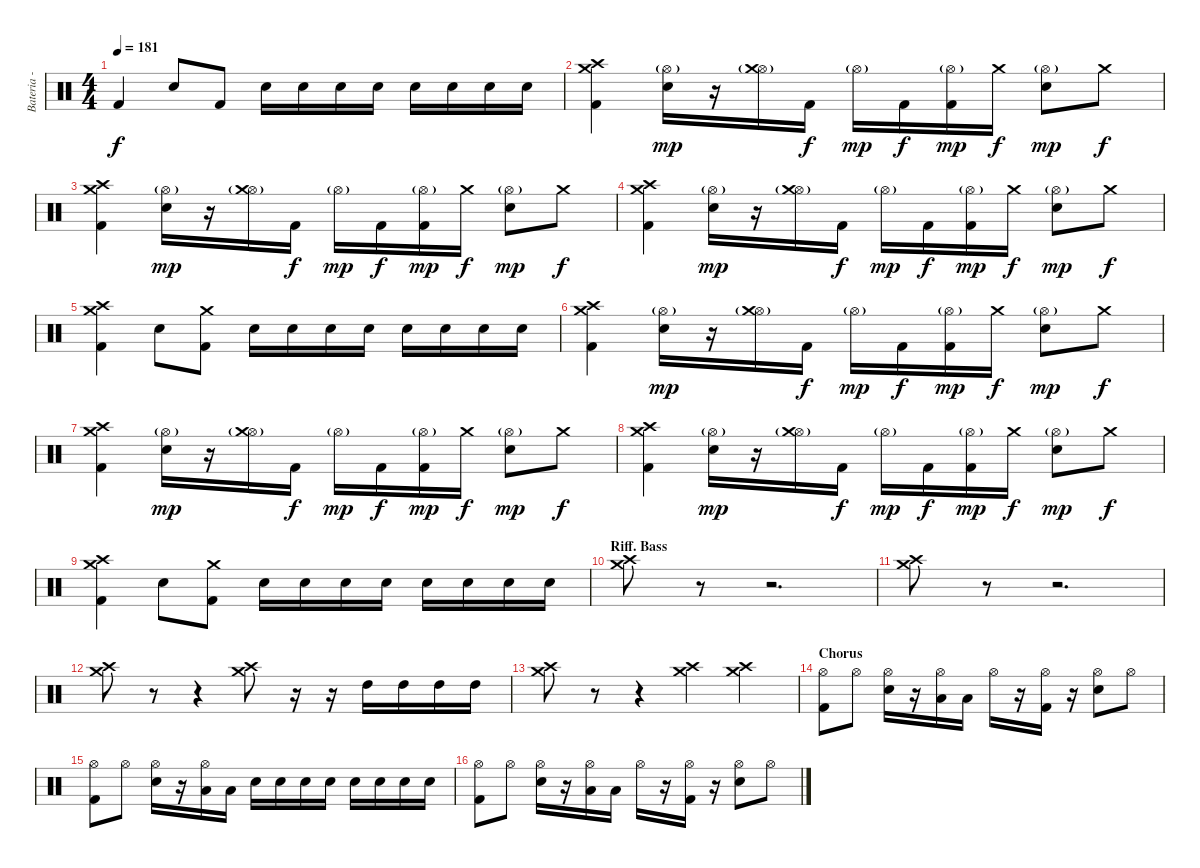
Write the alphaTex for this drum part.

\track ("Bateria - Larzon" "Bateria - ") {instrument percussion}
\staff {score}
\articulation defaults
\ts (4 4)
\tempo 181
\clef neutral
\ks c "Kick (hit) 2".4{dy f} "Electric Snare (hit)".8 "Kick (hit) 2".8 "Electric Snare (hit)".16 "Electric Snare (hit)".16 "Electric Snare (hit)".16 "Electric Snare (hit)".16 "Electric Snare (hit)".16 "Electric Snare (hit)".16 "Electric Snare (hit)".16 "Electric Snare (hit)".16
|
("Kick (hit) 2" "Crash high (hit)" "Crash medium (hit)").4 ("Electric Snare (hit)" "Hi-Hat (open)"{g}).16{dy mp} r.16 ("Hi-Hat (open)"{g} "Crash medium (hit)").16 "Kick (hit) 2".16{dy f} "Hi-Hat (open)"{g}.16{dy mp} "Kick (hit) 2".16{dy f} ("Kick (hit) 2" "Hi-Hat (open)"{g}).16{dy mp} "Crash medium (hit)".16{dy f} ("Electric Snare (hit)" "Hi-Hat (open)"{g}).8{dy mp} "Crash medium (hit)".8{dy f} |
("Kick (hit) 2" "Crash high (hit)" "Crash medium (hit)").4 ("Electric Snare (hit)" "Hi-Hat (open)"{g}).16{dy mp} r.16 ("Hi-Hat (open)"{g} "Crash medium (hit)").16 "Kick (hit) 2".16{dy f} "Hi-Hat (open)"{g}.16{dy mp} "Kick (hit) 2".16{dy f} ("Kick (hit) 2" "Hi-Hat (open)"{g}).16{dy mp} "Crash medium (hit)".16{dy f} ("Electric Snare (hit)" "Hi-Hat (open)"{g}).8{dy mp} "Crash medium (hit)".8{dy f} |
("Kick (hit) 2" "Crash high (hit)" "Crash medium (hit)").4 ("Electric Snare (hit)" "Hi-Hat (open)"{g}).16{dy mp} r.16 ("Hi-Hat (open)"{g} "Crash medium (hit)").16 "Kick (hit) 2".16{dy f} "Hi-Hat (open)"{g}.16{dy mp} "Kick (hit) 2".16{dy f} ("Kick (hit) 2" "Hi-Hat (open)"{g}).16{dy mp} "Crash medium (hit)".16{dy f} ("Electric Snare (hit)" "Hi-Hat (open)"{g}).8{dy mp} "Crash medium (hit)".8{dy f} |
("Kick (hit) 2" "Crash high (hit)" "Crash medium (hit)").4 "Electric Snare (hit)".8 ("Kick (hit) 2" "Crash medium (hit)").8 "Electric Snare (hit)".16 "Electric Snare (hit)".16 "Electric Snare (hit)".16 "Electric Snare (hit)".16 "Electric Snare (hit)".16 "Electric Snare (hit)".16 "Electric Snare (hit)".16 "Electric Snare (hit)".16 |
("Kick (hit) 2" "Crash high (hit)" "Crash medium (hit)").4 ("Electric Snare (hit)" "Hi-Hat (open)"{g}).16{dy mp} r.16 ("Hi-Hat (open)"{g} "Crash medium (hit)").16 "Kick (hit) 2".16{dy f} "Hi-Hat (open)"{g}.16{dy mp} "Kick (hit) 2".16{dy f} ("Kick (hit) 2" "Hi-Hat (open)"{g}).16{dy mp} "Crash medium (hit)".16{dy f} ("Electric Snare (hit)" "Hi-Hat (open)"{g}).8{dy mp} "Crash medium (hit)".8{dy f} |
("Kick (hit) 2" "Crash high (hit)" "Crash medium (hit)").4 ("Electric Snare (hit)" "Hi-Hat (open)"{g}).16{dy mp} r.16 ("Hi-Hat (open)"{g} "Crash medium (hit)").16 "Kick (hit) 2".16{dy f} "Hi-Hat (open)"{g}.16{dy mp} "Kick (hit) 2".16{dy f} ("Kick (hit) 2" "Hi-Hat (open)"{g}).16{dy mp} "Crash medium (hit)".16{dy f} ("Electric Snare (hit)" "Hi-Hat (open)"{g}).8{dy mp} "Crash medium (hit)".8{dy f} |
("Kick (hit) 2" "Crash high (hit)" "Crash medium (hit)").4 ("Electric Snare (hit)" "Hi-Hat (open)"{g}).16{dy mp} r.16 ("Hi-Hat (open)"{g} "Crash medium (hit)").16 "Kick (hit) 2".16{dy f} "Hi-Hat (open)"{g}.16{dy mp} "Kick (hit) 2".16{dy f} ("Kick (hit) 2" "Hi-Hat (open)"{g}).16{dy mp} "Crash medium (hit)".16{dy f} ("Electric Snare (hit)" "Hi-Hat (open)"{g}).8{dy mp} "Crash medium (hit)".8{dy f} |
("Kick (hit) 2" "Crash high (hit)" "Crash medium (hit)").4 "Electric Snare (hit)".8 ("Kick (hit) 2" "Crash medium (hit)").8 "Electric Snare (hit)".16 "Electric Snare (hit)".16 "Electric Snare (hit)".16 "Electric Snare (hit)".16 "Electric Snare (hit)".16 "Electric Snare (hit)".16 "Electric Snare (hit)".16 "Electric Snare (hit)".16 |
\section ("" "Riff. Bass")
("Crash medium (hit)" "Crash high (hit)").8 r.8{volume 0} r.2{d} |
("Crash medium (hit)" "Crash high (hit)").8{volume 11} r.8{volume 0} r.2{d} |
("Crash medium (hit)" "Crash high (hit)").8{volume 11} r.8{volume 0} r.4 ("Crash medium (hit)" "Crash high (hit)").8{volume 11} r.16 r.16 "High Tom (hit)".16 "High Tom (hit)".16 "High Tom (hit)".16 "High Tom (hit)".16 |
("Crash medium (hit)" "Crash high (hit)").8{volume 11} r.8 r.4 ("Crash medium (hit)" "Crash high (hit)").4{volume 11} ("Crash medium (hit)" "Crash high (hit)").4{volume 11} |
\section ("" "Chorus")
("Kick (hit) 2" "Hi-Hat (open)").8 "Hi-Hat (open)".8 ("Electric Snare (hit)" "Hi-Hat (open)").16 r.16 ("Low Floor Tom (hit)" "Hi-Hat (open)").16 "Low Floor Tom (hit)".16 "Hi-Hat (open)".16 r.16 ("Kick (hit) 2" "Hi-Hat (open)").16 r.16 ("Electric Snare (hit)" "Hi-Hat (open)").8 "Hi-Hat (open)".8 |
("Kick (hit) 2" "Hi-Hat (open)").8 "Hi-Hat (open)".8 ("Electric Snare (hit)" "Hi-Hat (open)").16 r.16 ("Low Floor Tom (hit)" "Hi-Hat (open)").16 "Low Floor Tom (hit)".16 "Electric Snare (hit)".16 "Electric Snare (hit)".16 "Electric Snare (hit)".16 "Electric Snare (hit)".16 "Electric Snare (hit)".16 "Electric Snare (hit)".16 "Electric Snare (hit)".16 "Electric Snare (hit)".16 |
("Kick (hit) 2" "Hi-Hat (open)").8 "Hi-Hat (open)".8 ("Electric Snare (hit)" "Hi-Hat (open)").16 r.16 ("Low Floor Tom (hit)" "Hi-Hat (open)").16 "Low Floor Tom (hit)".16 "Hi-Hat (open)".16 r.16 ("Kick (hit) 2" "Hi-Hat (open)").16 r.16 ("Electric Snare (hit)" "Hi-Hat (open)").8 "Hi-Hat (open)".8
